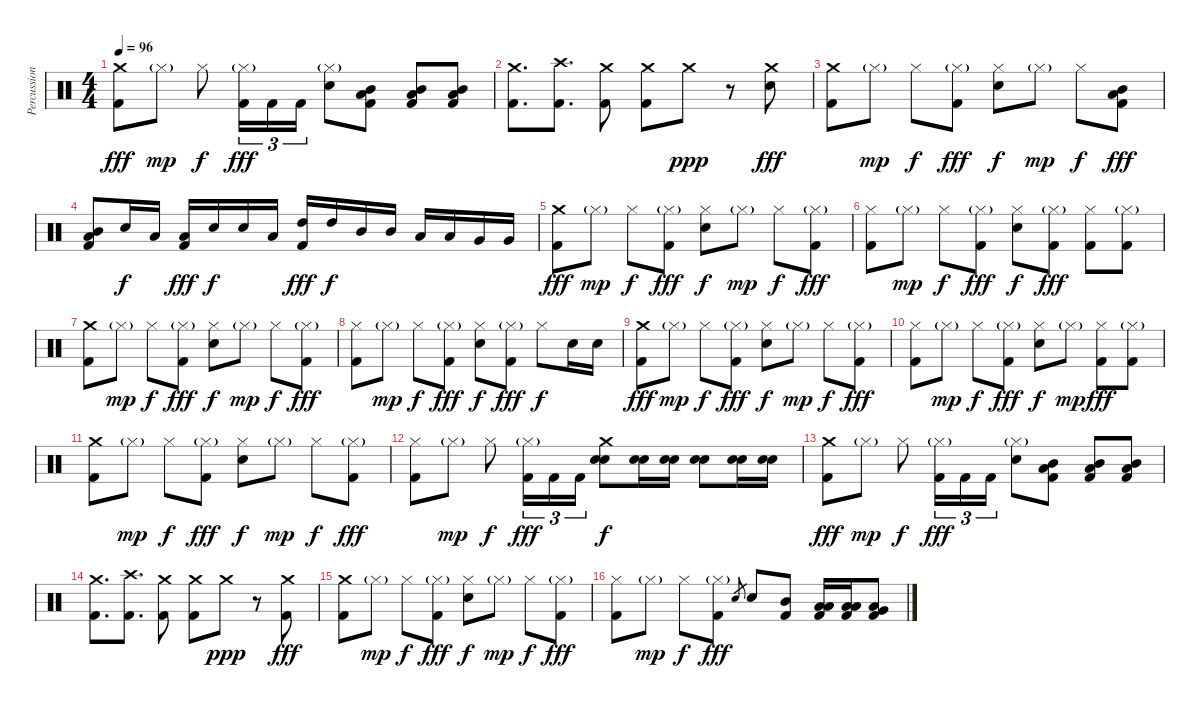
\track ("Percussion" "Percussion") {instrument percussion}
\staff {score}
\articulation defaults
\ts (4 4)
\tempo 96
\clef neutral
\ks c
("Crash medium (hit)" "Kick (hit) 2").8{dy fff} "Hi-Hat (closed)"{g}.8{dy mp} "Hi-Hat (closed)".8{dy f} ("Hi-Hat (closed)"{g} "Kick (hit) 2").16{tu (3 2) dy fff} "Kick (hit) 2".16{tu (3 2)} "Kick (hit) 2".16{tu (3 2)} ("Hi-Hat (closed)"{g} "Electric Snare (hit)").8 ("Mid Tom (hit)" "Low Tom (hit)" "Kick (hit) 2").8 ("Mid Tom (hit)" "Low Tom (hit)" "Kick (hit) 2").8 ("Mid Tom (hit)" "Low Tom (hit)" "Kick (hit) 2").8 |
("Crash medium (hit)" "Kick (hit) 2").8{d} ("Crash high (hit)" "Kick (hit) 2").8{d} ("Crash medium (hit)" "Kick (hit) 2").8 ("Crash medium (hit)" "Kick (hit) 2").8 "Crash medium (hit)".8{dy ppp} r.8 ("Crash medium (hit)" "Electric Snare (hit)").8{dy fff} |
("Crash medium (hit)" "Kick (hit) 2").8 "Hi-Hat (closed)"{g}.8{dy mp} "Hi-Hat (closed)".8{dy f} ("Hi-Hat (closed)"{g} "Kick (hit) 2").8{dy fff} ("Hi-Hat (closed)" "Electric Snare (hit)").8{dy f} "Hi-Hat (closed)"{g}.8{dy mp} "Hi-Hat (closed)".8{dy f} ("Mid Tom (hit)" "Low Tom (hit)" "Kick (hit) 2").8{dy fff} |
("Mid Tom (hit)" "Low Tom (hit)" "Kick (hit) 2").8 "Electric Snare (hit)".16{dy f} "Low Tom (hit)".16 ("Low Tom (hit)" "Kick (hit) 2").16{dy fff} "Electric Snare (hit)".16{dy f} "Electric Snare (hit)".16 "Low Tom (hit)".16 ("High Tom (hit)" "Kick (hit) 2").16{dy fff} "High Tom (hit)".16{dy f} "Mid Tom (hit)".16 "Mid Tom (hit)".16 "Low Tom (hit)".16 "Low Tom (hit)".16 "Very Low Tom (hit)".16 "Very Low Tom (hit)".16 |
("Crash medium (hit)" "Kick (hit) 2").8{dy fff} "Hi-Hat (closed)"{g}.8{dy mp} "Hi-Hat (closed)".8{dy f} ("Hi-Hat (closed)"{g} "Kick (hit) 2").8{dy fff} ("Hi-Hat (closed)" "Electric Snare (hit)").8{dy f} "Hi-Hat (closed)"{g}.8{dy mp} "Hi-Hat (closed)".8{dy f} ("Hi-Hat (closed)"{g} "Kick (hit) 2").8{dy fff} |
("Hi-Hat (closed)" "Kick (hit) 2").8 "Hi-Hat (closed)"{g}.8{dy mp} "Hi-Hat (closed)".8{dy f} ("Hi-Hat (closed)"{g} "Kick (hit) 2").8{dy fff} ("Hi-Hat (closed)" "Electric Snare (hit)").8{dy f} ("Hi-Hat (closed)"{g} "Kick (hit) 2").8{dy fff} ("Hi-Hat (closed)" "Kick (hit) 2").8 ("Hi-Hat (closed)"{g} "Kick (hit) 2").8 |
("Crash medium (hit)" "Kick (hit) 2").8 "Hi-Hat (closed)"{g}.8{dy mp} "Hi-Hat (closed)".8{dy f} ("Hi-Hat (closed)"{g} "Kick (hit) 2").8{dy fff} ("Hi-Hat (closed)" "Electric Snare (hit)").8{dy f} "Hi-Hat (closed)"{g}.8{dy mp} "Hi-Hat (closed)".8{dy f} ("Hi-Hat (closed)"{g} "Kick (hit) 2").8{dy fff} |
("Hi-Hat (closed)" "Kick (hit) 2").8 "Hi-Hat (closed)"{g}.8{dy mp} "Hi-Hat (closed)".8{dy f} ("Hi-Hat (closed)"{g} "Kick (hit) 2").8{dy fff} ("Hi-Hat (closed)" "Electric Snare (hit)").8{dy f} ("Hi-Hat (closed)"{g} "Kick (hit) 2").8{dy fff} "Hi-Hat (closed)".8{dy f} "Electric Snare (hit)".16 "Electric Snare (hit)".16 |
("Crash medium (hit)" "Kick (hit) 2").8{dy fff} "Hi-Hat (closed)"{g}.8{dy mp} "Hi-Hat (closed)".8{dy f} ("Hi-Hat (closed)"{g} "Kick (hit) 2").8{dy fff} ("Hi-Hat (closed)" "Electric Snare (hit)").8{dy f} "Hi-Hat (closed)"{g}.8{dy mp} "Hi-Hat (closed)".8{dy f} ("Hi-Hat (closed)"{g} "Kick (hit) 2").8{dy fff} |
("Hi-Hat (closed)" "Kick (hit) 2").8 "Hi-Hat (closed)"{g}.8{dy mp} "Hi-Hat (closed)".8{dy f} ("Hi-Hat (closed)"{g} "Kick (hit) 2").8{dy fff} ("Hi-Hat (closed)" "Electric Snare (hit)").8{dy f} "Hi-Hat (closed)"{g}.8{dy mp} ("Hi-Hat (closed)" "Kick (hit) 2").8{dy fff} ("Hi-Hat (closed)"{g} "Kick (hit) 2").8 |
("Crash medium (hit)" "Kick (hit) 2").8 "Hi-Hat (closed)"{g}.8{dy mp} "Hi-Hat (closed)".8{dy f} ("Hi-Hat (closed)"{g} "Kick (hit) 2").8{dy fff} ("Hi-Hat (closed)" "Electric Snare (hit)").8{dy f} "Hi-Hat (closed)"{g}.8{dy mp} "Hi-Hat (closed)".8{dy f} ("Hi-Hat (closed)"{g} "Kick (hit) 2").8{dy fff} |
("Hi-Hat (closed)" "Kick (hit) 2").8 "Hi-Hat (closed)"{g}.8{dy mp} "Hi-Hat (closed)".8{dy f} ("Hi-Hat (closed)"{g} "Kick (hit) 2").16{tu (3 2) dy fff} "Kick (hit) 2".16{tu (3 2)} "Kick (hit) 2".16{tu (3 2)} ("Crash medium (hit)" "Snare (hit) 2" "Electric Snare (hit)").8{dy f} ("Snare (hit) 2" "Electric Snare (hit)").16 ("Snare (hit) 2" "Electric Snare (hit)").16 ("Snare (hit) 2" "Electric Snare (hit)").8 ("Snare (hit) 2" "Electric Snare (hit)").16 ("Snare (hit) 2" "Electric Snare (hit)").16 |
("Crash medium (hit)" "Kick (hit) 2").8{dy fff} "Hi-Hat (closed)"{g}.8{dy mp} "Hi-Hat (closed)".8{dy f} ("Hi-Hat (closed)"{g} "Kick (hit) 2").16{tu (3 2) dy fff} "Kick (hit) 2".16{tu (3 2)} "Kick (hit) 2".16{tu (3 2)} ("Hi-Hat (closed)"{g} "Electric Snare (hit)").8 ("Mid Tom (hit)" "Low Tom (hit)" "Kick (hit) 2").8 ("Mid Tom (hit)" "Low Tom (hit)" "Kick (hit) 2").8 ("Mid Tom (hit)" "Low Tom (hit)" "Kick (hit) 2").8 |
("Crash medium (hit)" "Kick (hit) 2").8{d} ("Crash high (hit)" "Kick (hit) 2").8{d} ("Crash medium (hit)" "Kick (hit) 2").8 ("Crash medium (hit)" "Kick (hit) 2").8 "Crash medium (hit)".8{dy ppp} r.8 ("Crash medium (hit)" "Kick (hit) 2").8{dy fff} |
("Crash medium (hit)" "Kick (hit) 2").8 "Hi-Hat (closed)"{g}.8{dy mp} "Hi-Hat (closed)".8{dy f} ("Hi-Hat (closed)"{g} "Kick (hit) 2").8{dy fff} ("Hi-Hat (closed)" "Electric Snare (hit)").8{dy f} "Hi-Hat (closed)"{g}.8{dy mp} "Hi-Hat (closed)".8{dy f} ("Hi-Hat (closed)"{g} "Kick (hit) 2").8{dy fff} |
("Hi-Hat (closed)" "Kick (hit) 2").8 "Hi-Hat (closed)"{g}.8{dy mp} "Hi-Hat (closed)".8{dy f} ("Hi-Hat (closed)"{g} "Kick (hit) 2").8{dy fff} "Electric Snare (hit)".8{gr} "Electric Snare (hit)".8 ("Mid Tom (hit)" "Kick (hit) 2").8 ("Low Tom (hit)" "Low Floor Tom (hit)" "Kick (hit) 2").16 ("Low Tom (hit)" "Low Floor Tom (hit)" "Kick (hit) 2").16 ("Very Low Tom (hit)" "Low Floor Tom (hit)" "Kick (hit) 2").8
